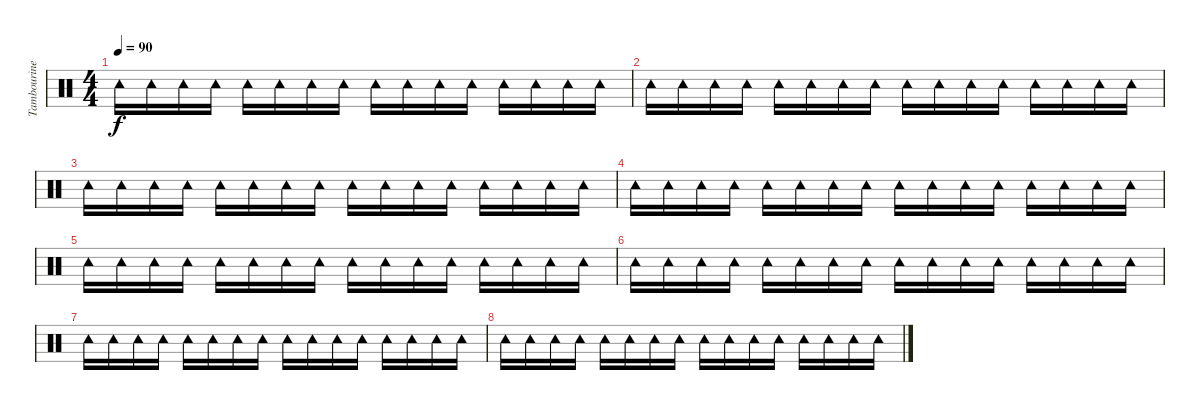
\track ("Tambourine" "Tambourine") {instrument percussion}
\staff {score}
\articulation defaults
\ts (4 4)
\tempo 90
\clef neutral
\ks c "Tambourine (hit)".16{dy f} "Tambourine (hit)".16 "Tambourine (hit)".16 "Tambourine (hit)".16 "Tambourine (hit)".16 "Tambourine (hit)".16 "Tambourine (hit)".16 "Tambourine (hit)".16 "Tambourine (hit)".16 "Tambourine (hit)".16 "Tambourine (hit)".16 "Tambourine (hit)".16 "Tambourine (hit)".16 "Tambourine (hit)".16 "Tambourine (hit)".16 "Tambourine (hit)".16
|
"Tambourine (hit)".16 "Tambourine (hit)".16 "Tambourine (hit)".16 "Tambourine (hit)".16 "Tambourine (hit)".16 "Tambourine (hit)".16 "Tambourine (hit)".16 "Tambourine (hit)".16 "Tambourine (hit)".16 "Tambourine (hit)".16 "Tambourine (hit)".16 "Tambourine (hit)".16 "Tambourine (hit)".16 "Tambourine (hit)".16 "Tambourine (hit)".16 "Tambourine (hit)".16 |
"Tambourine (hit)".16 "Tambourine (hit)".16 "Tambourine (hit)".16 "Tambourine (hit)".16 "Tambourine (hit)".16 "Tambourine (hit)".16 "Tambourine (hit)".16 "Tambourine (hit)".16 "Tambourine (hit)".16 "Tambourine (hit)".16 "Tambourine (hit)".16 "Tambourine (hit)".16 "Tambourine (hit)".16 "Tambourine (hit)".16 "Tambourine (hit)".16 "Tambourine (hit)".16 |
"Tambourine (hit)".16 "Tambourine (hit)".16 "Tambourine (hit)".16 "Tambourine (hit)".16 "Tambourine (hit)".16 "Tambourine (hit)".16 "Tambourine (hit)".16 "Tambourine (hit)".16 "Tambourine (hit)".16 "Tambourine (hit)".16 "Tambourine (hit)".16 "Tambourine (hit)".16 "Tambourine (hit)".16 "Tambourine (hit)".16 "Tambourine (hit)".16 "Tambourine (hit)".16 |
"Tambourine (hit)".16 "Tambourine (hit)".16 "Tambourine (hit)".16 "Tambourine (hit)".16 "Tambourine (hit)".16 "Tambourine (hit)".16 "Tambourine (hit)".16 "Tambourine (hit)".16 "Tambourine (hit)".16 "Tambourine (hit)".16 "Tambourine (hit)".16 "Tambourine (hit)".16 "Tambourine (hit)".16 "Tambourine (hit)".16 "Tambourine (hit)".16 "Tambourine (hit)".16 |
"Tambourine (hit)".16 "Tambourine (hit)".16 "Tambourine (hit)".16 "Tambourine (hit)".16 "Tambourine (hit)".16 "Tambourine (hit)".16 "Tambourine (hit)".16 "Tambourine (hit)".16 "Tambourine (hit)".16 "Tambourine (hit)".16 "Tambourine (hit)".16 "Tambourine (hit)".16 "Tambourine (hit)".16 "Tambourine (hit)".16 "Tambourine (hit)".16 "Tambourine (hit)".16 |
"Tambourine (hit)".16 "Tambourine (hit)".16 "Tambourine (hit)".16 "Tambourine (hit)".16 "Tambourine (hit)".16 "Tambourine (hit)".16 "Tambourine (hit)".16 "Tambourine (hit)".16 "Tambourine (hit)".16 "Tambourine (hit)".16 "Tambourine (hit)".16 "Tambourine (hit)".16 "Tambourine (hit)".16 "Tambourine (hit)".16 "Tambourine (hit)".16 "Tambourine (hit)".16 |
"Tambourine (hit)".16 "Tambourine (hit)".16 "Tambourine (hit)".16 "Tambourine (hit)".16 "Tambourine (hit)".16 "Tambourine (hit)".16 "Tambourine (hit)".16 "Tambourine (hit)".16 "Tambourine (hit)".16 "Tambourine (hit)".16 "Tambourine (hit)".16 "Tambourine (hit)".16 "Tambourine (hit)".16 "Tambourine (hit)".16 "Tambourine (hit)".16 "Tambourine (hit)".16
